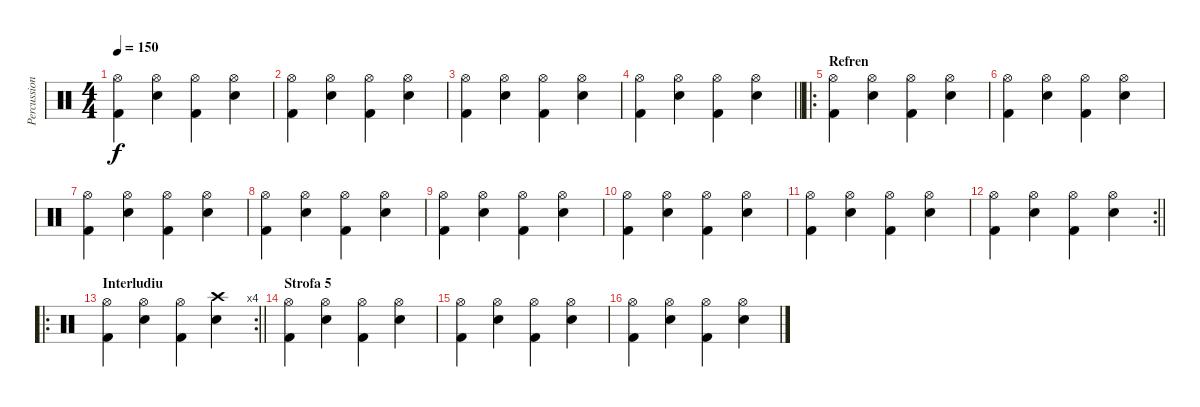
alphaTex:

\track ("Percussion" "Percussion") {instrument percussion}
\staff {score}
\articulation defaults
\ts (4 4)
\tempo 150
\clef neutral
\ks c
("Hi-Hat (open)" "Kick (hit) 2").4{dy f} ("Hi-Hat (open)" "Snare (hit) 2").4 ("Hi-Hat (open)" "Kick (hit) 2").4 ("Hi-Hat (open)" "Snare (hit) 2").4 |
("Hi-Hat (open)" "Kick (hit) 2").4 ("Hi-Hat (open)" "Snare (hit) 2").4 ("Hi-Hat (open)" "Kick (hit) 2").4 ("Hi-Hat (open)" "Snare (hit) 2").4 |
("Hi-Hat (open)" "Kick (hit) 2").4 ("Hi-Hat (open)" "Snare (hit) 2").4 ("Hi-Hat (open)" "Kick (hit) 2").4 ("Hi-Hat (open)" "Snare (hit) 2").4 |
\barLineRight lightlight
("Hi-Hat (open)" "Kick (hit) 2").4 ("Hi-Hat (open)" "Snare (hit) 2").4 ("Hi-Hat (open)" "Kick (hit) 2").4 ("Hi-Hat (open)" "Snare (hit) 2").4 |
\ro
\section ("" "Refren")
("Hi-Hat (open)" "Kick (hit) 2").4 ("Hi-Hat (open)" "Snare (hit) 2").4 ("Hi-Hat (open)" "Kick (hit) 2").4 ("Hi-Hat (open)" "Snare (hit) 2").4 |
("Hi-Hat (open)" "Kick (hit) 2").4 ("Hi-Hat (open)" "Snare (hit) 2").4 ("Hi-Hat (open)" "Kick (hit) 2").4 ("Hi-Hat (open)" "Snare (hit) 2").4 |
("Hi-Hat (open)" "Kick (hit) 2").4 ("Hi-Hat (open)" "Snare (hit) 2").4 ("Hi-Hat (open)" "Kick (hit) 2").4 ("Hi-Hat (open)" "Snare (hit) 2").4 |
("Hi-Hat (open)" "Kick (hit) 2").4 ("Hi-Hat (open)" "Snare (hit) 2").4 ("Hi-Hat (open)" "Kick (hit) 2").4 ("Hi-Hat (open)" "Snare (hit) 2").4 |
("Hi-Hat (open)" "Kick (hit) 2").4 ("Hi-Hat (open)" "Snare (hit) 2").4 ("Hi-Hat (open)" "Kick (hit) 2").4 ("Hi-Hat (open)" "Snare (hit) 2").4 |
("Hi-Hat (open)" "Kick (hit) 2").4 ("Hi-Hat (open)" "Snare (hit) 2").4 ("Hi-Hat (open)" "Kick (hit) 2").4 ("Hi-Hat (open)" "Snare (hit) 2").4 |
("Hi-Hat (open)" "Kick (hit) 2").4 ("Hi-Hat (open)" "Snare (hit) 2").4 ("Hi-Hat (open)" "Kick (hit) 2").4 ("Hi-Hat (open)" "Snare (hit) 2").4 |
\rc 2
\barLineRight lightlight
("Hi-Hat (open)" "Kick (hit) 2").4 ("Hi-Hat (open)" "Snare (hit) 2").4 ("Hi-Hat (open)" "Kick (hit) 2").4 ("Hi-Hat (open)" "Snare (hit) 2").4 |
\ro
\rc 4
\section ("" "Interludiu")
\barLineRight lightlight
("Hi-Hat (open)" "Kick (hit) 2").4 ("Hi-Hat (open)" "Snare (hit) 2").4 ("Hi-Hat (open)" "Kick (hit) 2").4 ("Crash high (hit)" "Snare (hit) 2").4 |
\section ("" "Strofa 5")
("Hi-Hat (open)" "Kick (hit) 2").4 ("Hi-Hat (open)" "Snare (hit) 2").4 ("Hi-Hat (open)" "Kick (hit) 2").4 ("Hi-Hat (open)" "Snare (hit) 2").4 |
("Hi-Hat (open)" "Kick (hit) 2").4 ("Hi-Hat (open)" "Snare (hit) 2").4 ("Hi-Hat (open)" "Kick (hit) 2").4 ("Hi-Hat (open)" "Snare (hit) 2").4 |
("Hi-Hat (open)" "Kick (hit) 2").4 ("Hi-Hat (open)" "Snare (hit) 2").4 ("Hi-Hat (open)" "Kick (hit) 2").4 ("Hi-Hat (open)" "Snare (hit) 2").4
